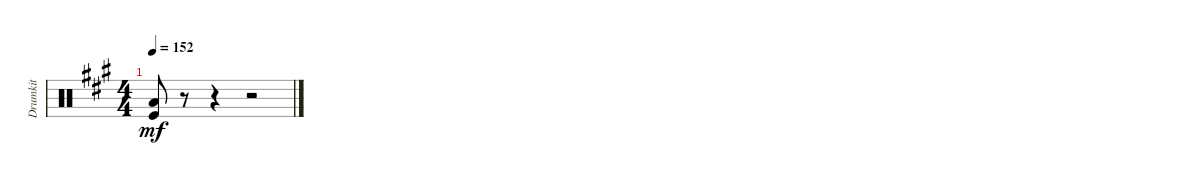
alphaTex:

\track ("Drumkit" "Drumkit") {instrument percussion}
\staff {score}
\articulation defaults
\ts (4 4)
\tempo 152
\clef neutral
\ks a
("Kick (hit)" "Low Floor Tom (hit)").8{dy mf} r.8 r.4 r.2
